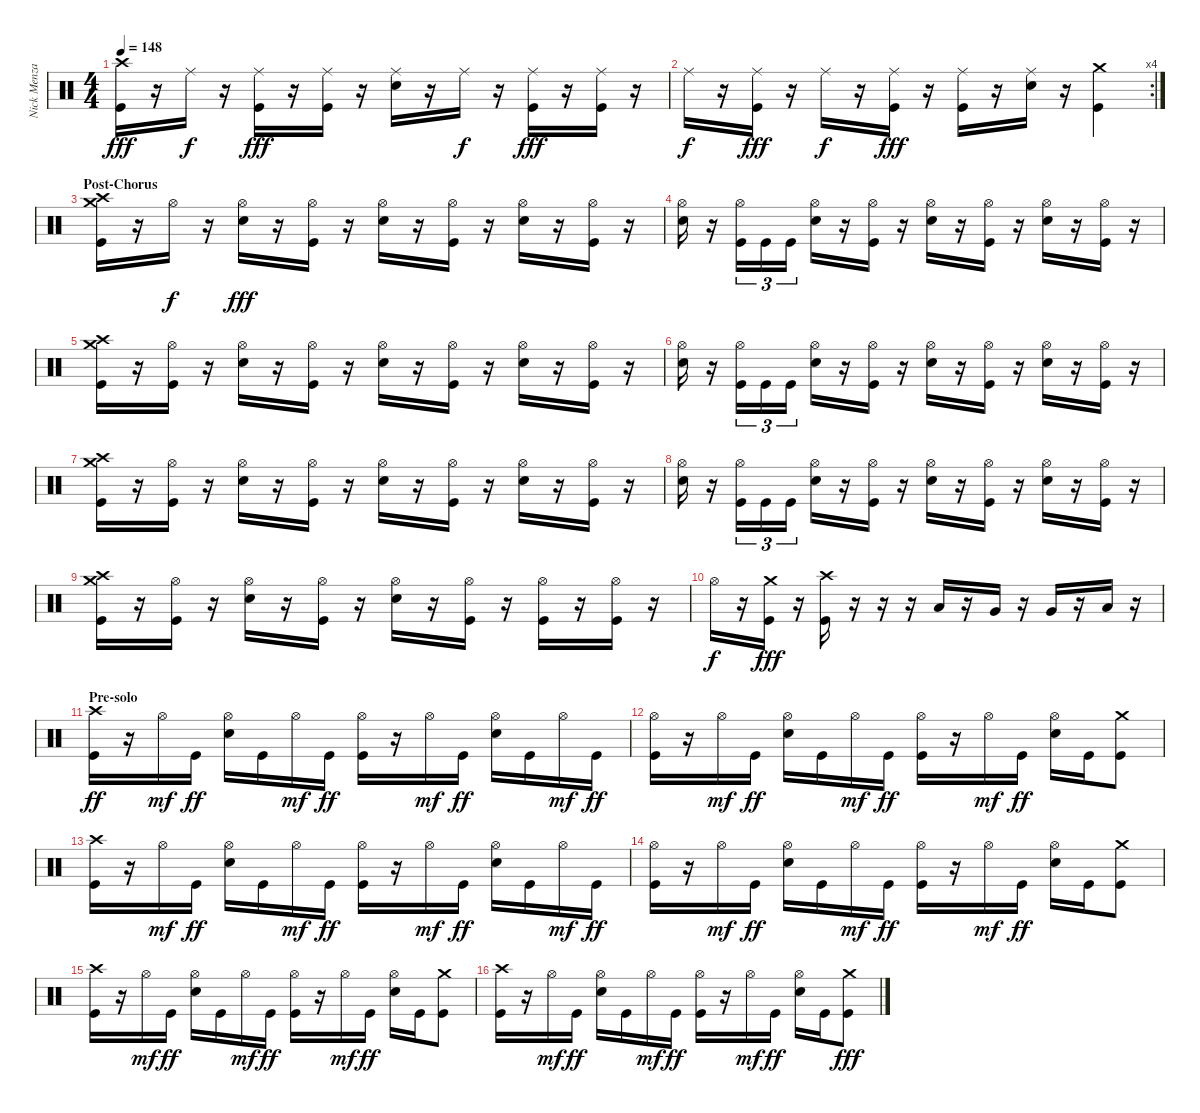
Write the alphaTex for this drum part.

\track ("Nick Menza" "Nick Menza") {instrument percussion}
\staff {score}
\articulation defaults
\ts (4 4)
\tempo 148
\clef neutral
\ks c
("Kick (hit)" "Crash high (hit)").16{dy fff} r.16 "Ride (middle)".16{dy f} r.16 ("Kick (hit)" "Ride (middle)").16{dy fff} r.16 ("Kick (hit)" "Ride (middle)").16 r.16 ("Snare (hit) 2" "Ride (middle)").16 r.16 "Ride (middle)".16{dy f} r.16 ("Kick (hit)" "Ride (middle)").16{dy fff} r.16 ("Kick (hit)" "Ride (middle)").16 r.16 |
\rc 4 "Ride (middle)".16{dy f}
r.16 ("Kick (hit)" "Ride (middle)").16{dy fff} r.16 "Ride (middle)".16{dy f} r.16 ("Kick (hit)" "Ride (middle)").16{dy fff} r.16 ("Kick (hit)" "Ride (middle)").16 r.16 ("Snare (hit) 2" "Ride (middle)").16 r.16 ("Kick (hit)" "Crash medium (hit)").4 |
\section ("" "Post-Chorus")
("Kick (hit)" "Crash high (hit)" "Crash medium (hit)").16 r.16 "Hi-Hat (open)".16{dy f} r.16 ("Snare (hit) 2" "Hi-Hat (open)").16{dy fff} r.16 ("Kick (hit)" "Hi-Hat (open)").16 r.16 ("Snare (hit) 2" "Hi-Hat (open)").16 r.16 ("Kick (hit)" "Hi-Hat (open)").16 r.16 ("Snare (hit) 2" "Hi-Hat (open)").16 r.16 ("Kick (hit)" "Hi-Hat (open)").16 r.16 |
("Snare (hit) 2" "Hi-Hat (open)").16 r.16 ("Kick (hit)" "Hi-Hat (open)").16{tu (3 2)} "Kick (hit)".16{tu (3 2)} "Kick (hit)".16{tu (3 2)} ("Snare (hit) 2" "Hi-Hat (open)").16 r.16 ("Kick (hit)" "Hi-Hat (open)").16 r.16 ("Snare (hit) 2" "Hi-Hat (open)").16 r.16 ("Kick (hit)" "Hi-Hat (open)").16 r.16 ("Snare (hit) 2" "Hi-Hat (open)").16 r.16 ("Kick (hit)" "Hi-Hat (open)").16 r.16 |
("Kick (hit)" "Crash high (hit)" "Crash medium (hit)").16 r.16 ("Kick (hit)" "Hi-Hat (open)").16 r.16 ("Snare (hit) 2" "Hi-Hat (open)").16 r.16 ("Kick (hit)" "Hi-Hat (open)").16 r.16 ("Snare (hit) 2" "Hi-Hat (open)").16 r.16 ("Kick (hit)" "Hi-Hat (open)").16 r.16 ("Snare (hit) 2" "Hi-Hat (open)").16 r.16 ("Kick (hit)" "Hi-Hat (open)").16 r.16 |
("Snare (hit) 2" "Hi-Hat (open)").16 r.16 ("Kick (hit)" "Hi-Hat (open)").16{tu (3 2)} "Kick (hit)".16{tu (3 2)} "Kick (hit)".16{tu (3 2)} ("Snare (hit) 2" "Hi-Hat (open)").16 r.16 ("Kick (hit)" "Hi-Hat (open)").16 r.16 ("Snare (hit) 2" "Hi-Hat (open)").16 r.16 ("Kick (hit)" "Hi-Hat (open)").16 r.16 ("Snare (hit) 2" "Hi-Hat (open)").16 r.16 ("Kick (hit)" "Hi-Hat (open)").16 r.16 |
("Kick (hit)" "Crash high (hit)" "Crash medium (hit)").16 r.16 ("Kick (hit)" "Hi-Hat (open)").16 r.16 ("Snare (hit) 2" "Hi-Hat (open)").16 r.16 ("Kick (hit)" "Hi-Hat (open)").16 r.16 ("Snare (hit) 2" "Hi-Hat (open)").16 r.16 ("Kick (hit)" "Hi-Hat (open)").16 r.16 ("Snare (hit) 2" "Hi-Hat (open)").16 r.16 ("Kick (hit)" "Hi-Hat (open)").16 r.16 |
("Snare (hit) 2" "Hi-Hat (open)").16 r.16 ("Kick (hit)" "Hi-Hat (open)").16{tu (3 2)} "Kick (hit)".16{tu (3 2)} "Kick (hit)".16{tu (3 2)} ("Snare (hit) 2" "Hi-Hat (open)").16 r.16 ("Kick (hit)" "Hi-Hat (open)").16 r.16 ("Snare (hit) 2" "Hi-Hat (open)").16 r.16 ("Kick (hit)" "Hi-Hat (open)").16 r.16 ("Snare (hit) 2" "Hi-Hat (open)").16 r.16 ("Kick (hit)" "Hi-Hat (open)").16 r.16 |
("Kick (hit)" "Crash high (hit)" "Crash medium (hit)").16 r.16 ("Kick (hit)" "Hi-Hat (open)").16 r.16 ("Snare (hit) 2" "Hi-Hat (open)").16 r.16 ("Kick (hit)" "Hi-Hat (open)").16 r.16 ("Snare (hit) 2" "Hi-Hat (open)").16 r.16 ("Kick (hit)" "Hi-Hat (open)").16 r.16 ("Kick (hit)" "Hi-Hat (open)").16 r.16 ("Kick (hit)" "Hi-Hat (open)").16 r.16 |
"Hi-Hat (open)".16{dy f} r.16 ("Kick (hit)" "Crash medium (hit)").16{dy fff} r.16 ("Kick (hit)" "Crash high (hit)").16 r.16 r.16 r.16 "Low Tom (hit)".16 r.16 "Very Low Tom (hit)".16 r.16 "Very Low Tom (hit)".16 r.16 "Low Floor Tom (hit)".16 r.16 |
\section ("" "Pre-solo")
("Kick (hit)" "Crash high (hit)").16{dy ff} r.16 "Hi-Hat (open)".16{dy mf} "Kick (hit)".16{dy ff} ("Snare (hit) 2" "Hi-Hat (open)").16 "Kick (hit)".16 "Hi-Hat (open)".16{dy mf} "Kick (hit)".16{dy ff} ("Kick (hit)" "Hi-Hat (open)").16 r.16 "Hi-Hat (open)".16{dy mf} "Kick (hit)".16{dy ff} ("Snare (hit) 2" "Hi-Hat (open)").16 "Kick (hit)".16 "Hi-Hat (open)".16{dy mf} "Kick (hit)".16{dy ff} |
("Kick (hit)" "Hi-Hat (open)").16 r.16 "Hi-Hat (open)".16{dy mf} "Kick (hit)".16{dy ff} ("Snare (hit) 2" "Hi-Hat (open)").16 "Kick (hit)".16 "Hi-Hat (open)".16{dy mf} "Kick (hit)".16{dy ff} ("Kick (hit)" "Hi-Hat (open)").16 r.16 "Hi-Hat (open)".16{dy mf} "Kick (hit)".16{dy ff} ("Snare (hit) 2" "Hi-Hat (open)").16 "Kick (hit)".16 ("Kick (hit)" "Crash medium (hit)").8 |
("Kick (hit)" "Crash high (hit)").16 r.16 "Hi-Hat (open)".16{dy mf} "Kick (hit)".16{dy ff} ("Snare (hit) 2" "Hi-Hat (open)").16 "Kick (hit)".16 "Hi-Hat (open)".16{dy mf} "Kick (hit)".16{dy ff} ("Kick (hit)" "Hi-Hat (open)").16 r.16 "Hi-Hat (open)".16{dy mf} "Kick (hit)".16{dy ff} ("Snare (hit) 2" "Hi-Hat (open)").16 "Kick (hit)".16 "Hi-Hat (open)".16{dy mf} "Kick (hit)".16{dy ff} |
("Kick (hit)" "Hi-Hat (open)").16 r.16 "Hi-Hat (open)".16{dy mf} "Kick (hit)".16{dy ff} ("Snare (hit) 2" "Hi-Hat (open)").16 "Kick (hit)".16 "Hi-Hat (open)".16{dy mf} "Kick (hit)".16{dy ff} ("Kick (hit)" "Hi-Hat (open)").16 r.16 "Hi-Hat (open)".16{dy mf} "Kick (hit)".16{dy ff} ("Snare (hit) 2" "Hi-Hat (open)").16 "Kick (hit)".16 ("Kick (hit)" "Crash medium (hit)").8 |
("Kick (hit)" "Crash high (hit)").16 r.16 "Hi-Hat (open)".16{dy mf} "Kick (hit)".16{dy ff} ("Snare (hit) 2" "Hi-Hat (open)").16 "Kick (hit)".16 "Hi-Hat (open)".16{dy mf} "Kick (hit)".16{dy ff} ("Kick (hit)" "Hi-Hat (open)").16 r.16 "Hi-Hat (open)".16{dy mf} "Kick (hit)".16{dy ff} ("Snare (hit) 2" "Hi-Hat (open)").16 "Kick (hit)".16 ("Kick (hit)" "Crash medium (hit)").8 |
("Kick (hit)" "Crash high (hit)").16 r.16 "Hi-Hat (open)".16{dy mf} "Kick (hit)".16{dy ff} ("Snare (hit) 2" "Hi-Hat (open)").16 "Kick (hit)".16 "Hi-Hat (open)".16{dy mf} "Kick (hit)".16{dy ff} ("Kick (hit)" "Hi-Hat (open)").16 r.16 "Hi-Hat (open)".16{dy mf} "Kick (hit)".16{dy ff} ("Snare (hit) 2" "Hi-Hat (open)").16 "Kick (hit)".16 ("Kick (hit)" "Crash medium (hit)").8{dy fff}
